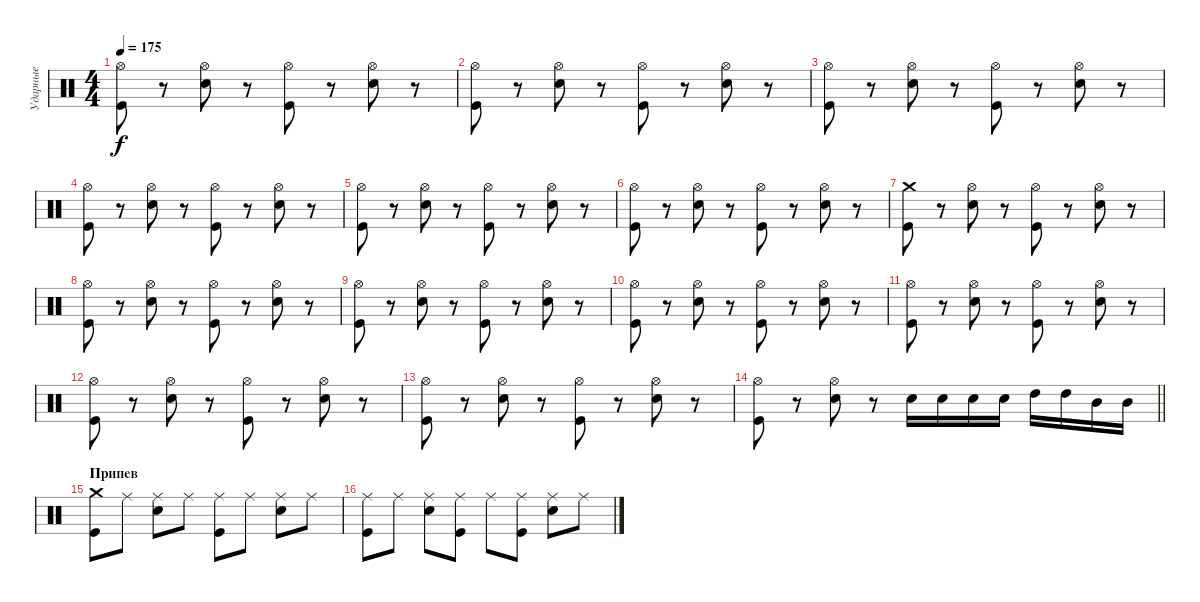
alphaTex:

\track ("Ударные" "Ударные") {instrument percussion}
\staff {score}
\articulation defaults
\ts (4 4)
\tempo 175
\clef neutral
\ks c
("Hi-Hat (open)" "Kick (hit)").8{dy f} r.8 ("Hi-Hat (open)" "Electric Snare (hit)").8 r.8 ("Hi-Hat (open)" "Kick (hit)").8 r.8 ("Hi-Hat (open)" "Electric Snare (hit)").8 r.8 |
("Hi-Hat (open)" "Kick (hit)").8 r.8 ("Hi-Hat (open)" "Electric Snare (hit)").8 r.8 ("Hi-Hat (open)" "Kick (hit)").8 r.8 ("Hi-Hat (open)" "Electric Snare (hit)").8 r.8 |
("Hi-Hat (open)" "Kick (hit)").8 r.8 ("Hi-Hat (open)" "Electric Snare (hit)").8 r.8 ("Hi-Hat (open)" "Kick (hit)").8 r.8 ("Hi-Hat (open)" "Electric Snare (hit)").8 r.8 |
("Hi-Hat (open)" "Kick (hit)").8 r.8 ("Hi-Hat (open)" "Electric Snare (hit)").8 r.8 ("Hi-Hat (open)" "Kick (hit)").8 r.8 ("Hi-Hat (open)" "Electric Snare (hit)").8 r.8 |
("Hi-Hat (open)" "Kick (hit)").8 r.8 ("Hi-Hat (open)" "Electric Snare (hit)").8 r.8 ("Hi-Hat (open)" "Kick (hit)").8 r.8 ("Hi-Hat (open)" "Electric Snare (hit)").8 r.8 |
("Hi-Hat (open)" "Kick (hit)").8 r.8 ("Hi-Hat (open)" "Electric Snare (hit)").8 r.8 ("Hi-Hat (open)" "Kick (hit)").8 r.8 ("Hi-Hat (open)" "Electric Snare (hit)").8 r.8 |
("Crash medium (hit)" "Kick (hit)").8 r.8 ("Hi-Hat (open)" "Electric Snare (hit)").8 r.8 ("Hi-Hat (open)" "Kick (hit)").8 r.8 ("Hi-Hat (open)" "Electric Snare (hit)").8 r.8 |
("Hi-Hat (open)" "Kick (hit)").8 r.8 ("Hi-Hat (open)" "Electric Snare (hit)").8 r.8 ("Hi-Hat (open)" "Kick (hit)").8 r.8 ("Hi-Hat (open)" "Electric Snare (hit)").8 r.8 |
("Hi-Hat (open)" "Kick (hit)").8 r.8 ("Hi-Hat (open)" "Electric Snare (hit)").8 r.8 ("Hi-Hat (open)" "Kick (hit)").8 r.8 ("Hi-Hat (open)" "Electric Snare (hit)").8 r.8 |
("Hi-Hat (open)" "Kick (hit)").8 r.8 ("Hi-Hat (open)" "Electric Snare (hit)").8 r.8 ("Hi-Hat (open)" "Kick (hit)").8 r.8 ("Hi-Hat (open)" "Electric Snare (hit)").8 r.8 |
("Hi-Hat (open)" "Kick (hit)").8 r.8 ("Hi-Hat (open)" "Electric Snare (hit)").8 r.8 ("Hi-Hat (open)" "Kick (hit)").8 r.8 ("Hi-Hat (open)" "Electric Snare (hit)").8 r.8 |
("Hi-Hat (open)" "Kick (hit)").8 r.8 ("Hi-Hat (open)" "Electric Snare (hit)").8 r.8 ("Hi-Hat (open)" "Kick (hit)").8 r.8 ("Hi-Hat (open)" "Electric Snare (hit)").8 r.8 |
("Hi-Hat (open)" "Kick (hit)").8 r.8 ("Hi-Hat (open)" "Electric Snare (hit)").8 r.8 ("Hi-Hat (open)" "Kick (hit)").8 r.8 ("Hi-Hat (open)" "Electric Snare (hit)").8 r.8 |
\barLineRight lightlight
("Hi-Hat (open)" "Kick (hit)").8 r.8 ("Hi-Hat (open)" "Electric Snare (hit)").8 r.8 "Electric Snare (hit)".16 "Electric Snare (hit)".16 "Electric Snare (hit)".16 "Electric Snare (hit)".16 "High Tom (hit)".16 "High Tom (hit)".16 "Mid Tom (hit)".16 "Mid Tom (hit)".16 |
\section ("" "Припев")
("Crash medium (hit)" "Kick (hit)").8 "Ride (middle)".8 ("Ride (middle)" "Electric Snare (hit)").8 "Ride (middle)".8 ("Ride (middle)" "Kick (hit)").8 "Ride (middle)".8 ("Ride (middle)" "Electric Snare (hit)").8 "Ride (middle)".8 |
("Ride (middle)" "Kick (hit)").8 "Ride (middle)".8 ("Ride (middle)" "Electric Snare (hit)").8 ("Ride (middle)" "Kick (hit)").8 "Ride (middle)".8 ("Ride (middle)" "Kick (hit)").8 ("Ride (middle)" "Electric Snare (hit)").8 "Ride (middle)".8
